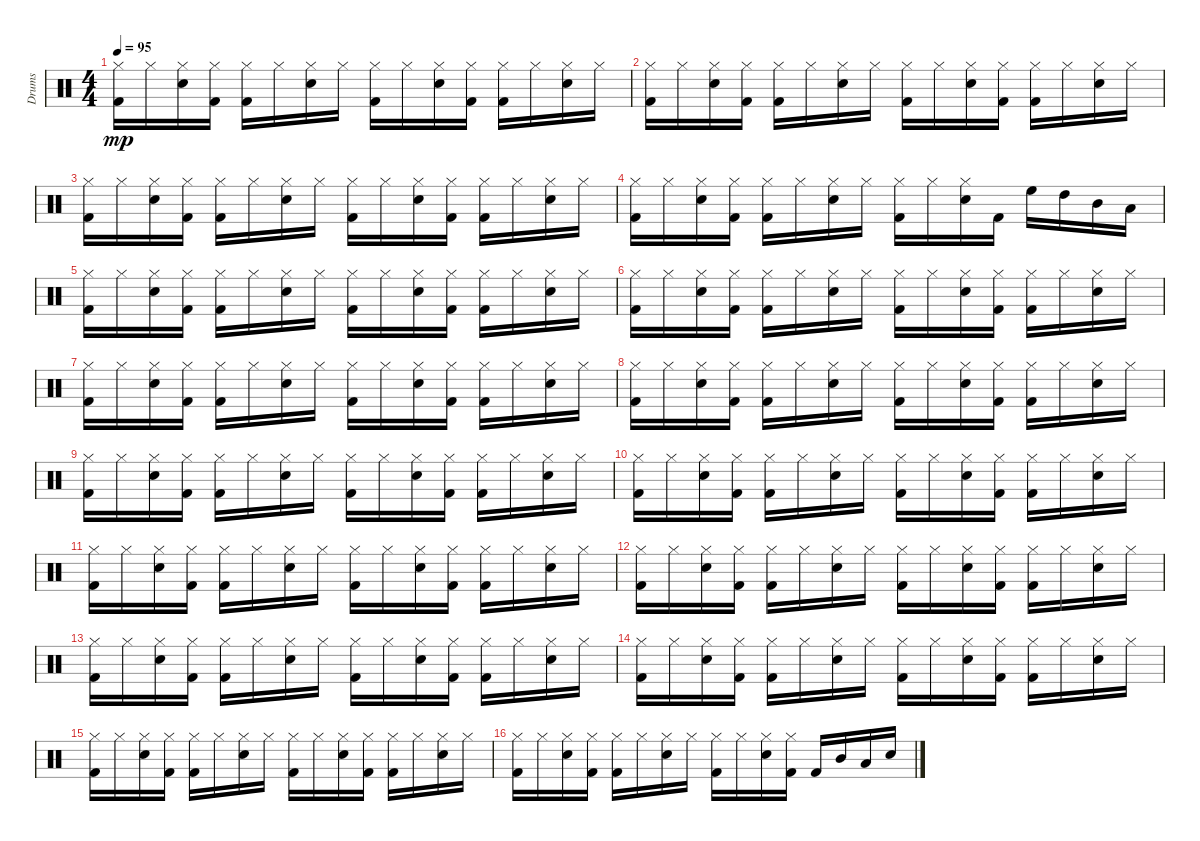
\track ("Drums" "Drums") {instrument percussion}
\staff {score}
\articulation defaults
\ts (4 4)
\tempo 95
\clef neutral
\ks c
("Kick (hit) 2" "Hi-Hat (closed)").16{dy mp} "Hi-Hat (closed)".16 ("Snare (hit) 2" "Hi-Hat (closed)").16 ("Kick (hit) 2" "Hi-Hat (closed)").16 ("Kick (hit) 2" "Hi-Hat (closed)").16 "Hi-Hat (closed)".16 ("Snare (hit) 2" "Hi-Hat (closed)").16 "Hi-Hat (closed)".16 ("Kick (hit) 2" "Hi-Hat (closed)").16 "Hi-Hat (closed)".16 ("Snare (hit) 2" "Hi-Hat (closed)").16 ("Kick (hit) 2" "Hi-Hat (closed)").16 ("Kick (hit) 2" "Hi-Hat (closed)").16 "Hi-Hat (closed)".16 ("Snare (hit) 2" "Hi-Hat (closed)").16 "Hi-Hat (closed)".16 |
("Kick (hit) 2" "Hi-Hat (closed)").16 "Hi-Hat (closed)".16 ("Snare (hit) 2" "Hi-Hat (closed)").16 ("Kick (hit) 2" "Hi-Hat (closed)").16 ("Kick (hit) 2" "Hi-Hat (closed)").16 "Hi-Hat (closed)".16 ("Snare (hit) 2" "Hi-Hat (closed)").16 "Hi-Hat (closed)".16 ("Kick (hit) 2" "Hi-Hat (closed)").16 "Hi-Hat (closed)".16 ("Snare (hit) 2" "Hi-Hat (closed)").16 ("Kick (hit) 2" "Hi-Hat (closed)").16 ("Kick (hit) 2" "Hi-Hat (closed)").16 "Hi-Hat (closed)".16 ("Snare (hit) 2" "Hi-Hat (closed)").16 "Hi-Hat (closed)".16 |
("Kick (hit) 2" "Hi-Hat (closed)").16 "Hi-Hat (closed)".16 ("Snare (hit) 2" "Hi-Hat (closed)").16 ("Kick (hit) 2" "Hi-Hat (closed)").16 ("Kick (hit) 2" "Hi-Hat (closed)").16 "Hi-Hat (closed)".16 ("Snare (hit) 2" "Hi-Hat (closed)").16 "Hi-Hat (closed)".16 ("Kick (hit) 2" "Hi-Hat (closed)").16 "Hi-Hat (closed)".16 ("Snare (hit) 2" "Hi-Hat (closed)").16 ("Kick (hit) 2" "Hi-Hat (closed)").16 ("Kick (hit) 2" "Hi-Hat (closed)").16 "Hi-Hat (closed)".16 ("Snare (hit) 2" "Hi-Hat (closed)").16 "Hi-Hat (closed)".16 |
("Kick (hit) 2" "Hi-Hat (closed)").16 "Hi-Hat (closed)".16 ("Snare (hit) 2" "Hi-Hat (closed)").16 ("Kick (hit) 2" "Hi-Hat (closed)").16 ("Kick (hit) 2" "Hi-Hat (closed)").16 "Hi-Hat (closed)".16 ("Snare (hit) 2" "Hi-Hat (closed)").16 "Hi-Hat (closed)".16 ("Kick (hit) 2" "Hi-Hat (closed)").16 "Hi-Hat (closed)".16 ("Snare (hit) 2" "Hi-Hat (closed)").16 "Kick (hit) 2".16 "High Floor Tom (hit)".16 "High Tom (hit)".16 "Mid Tom (hit)".16 "Low Tom (hit)".16 |
("Kick (hit) 2" "Hi-Hat (closed)").16 "Hi-Hat (closed)".16 ("Snare (hit) 2" "Hi-Hat (closed)").16 ("Kick (hit) 2" "Hi-Hat (closed)").16 ("Kick (hit) 2" "Hi-Hat (closed)").16 "Hi-Hat (closed)".16 ("Snare (hit) 2" "Hi-Hat (closed)").16 "Hi-Hat (closed)".16 ("Kick (hit) 2" "Hi-Hat (closed)").16 "Hi-Hat (closed)".16 ("Snare (hit) 2" "Hi-Hat (closed)").16 ("Kick (hit) 2" "Hi-Hat (closed)").16 ("Kick (hit) 2" "Hi-Hat (closed)").16 "Hi-Hat (closed)".16 ("Snare (hit) 2" "Hi-Hat (closed)").16 "Hi-Hat (closed)".16 |
("Kick (hit) 2" "Hi-Hat (closed)").16 "Hi-Hat (closed)".16 ("Snare (hit) 2" "Hi-Hat (closed)").16 ("Kick (hit) 2" "Hi-Hat (closed)").16 ("Kick (hit) 2" "Hi-Hat (closed)").16 "Hi-Hat (closed)".16 ("Snare (hit) 2" "Hi-Hat (closed)").16 "Hi-Hat (closed)".16 ("Kick (hit) 2" "Hi-Hat (closed)").16 "Hi-Hat (closed)".16 ("Snare (hit) 2" "Hi-Hat (closed)").16 ("Kick (hit) 2" "Hi-Hat (closed)").16 ("Kick (hit) 2" "Hi-Hat (closed)").16 "Hi-Hat (closed)".16 ("Snare (hit) 2" "Hi-Hat (closed)").16 "Hi-Hat (closed)".16 |
("Kick (hit) 2" "Hi-Hat (closed)").16 "Hi-Hat (closed)".16 ("Snare (hit) 2" "Hi-Hat (closed)").16 ("Kick (hit) 2" "Hi-Hat (closed)").16 ("Kick (hit) 2" "Hi-Hat (closed)").16 "Hi-Hat (closed)".16 ("Snare (hit) 2" "Hi-Hat (closed)").16 "Hi-Hat (closed)".16 ("Kick (hit) 2" "Hi-Hat (closed)").16 "Hi-Hat (closed)".16 ("Snare (hit) 2" "Hi-Hat (closed)").16 ("Kick (hit) 2" "Hi-Hat (closed)").16 ("Kick (hit) 2" "Hi-Hat (closed)").16 "Hi-Hat (closed)".16 ("Snare (hit) 2" "Hi-Hat (closed)").16 "Hi-Hat (closed)".16 |
("Kick (hit) 2" "Hi-Hat (closed)").16 "Hi-Hat (closed)".16 ("Snare (hit) 2" "Hi-Hat (closed)").16 ("Kick (hit) 2" "Hi-Hat (closed)").16 ("Kick (hit) 2" "Hi-Hat (closed)").16 "Hi-Hat (closed)".16 ("Snare (hit) 2" "Hi-Hat (closed)").16 "Hi-Hat (closed)".16 ("Kick (hit) 2" "Hi-Hat (closed)").16 "Hi-Hat (closed)".16 ("Snare (hit) 2" "Hi-Hat (closed)").16 ("Kick (hit) 2" "Hi-Hat (closed)").16 ("Kick (hit) 2" "Hi-Hat (closed)").16 "Hi-Hat (closed)".16 ("Snare (hit) 2" "Hi-Hat (closed)").16 "Hi-Hat (closed)".16 |
("Kick (hit) 2" "Hi-Hat (closed)").16 "Hi-Hat (closed)".16 ("Snare (hit) 2" "Hi-Hat (closed)").16 ("Kick (hit) 2" "Hi-Hat (closed)").16 ("Kick (hit) 2" "Hi-Hat (closed)").16 "Hi-Hat (closed)".16 ("Snare (hit) 2" "Hi-Hat (closed)").16 "Hi-Hat (closed)".16 ("Kick (hit) 2" "Hi-Hat (closed)").16 "Hi-Hat (closed)".16 ("Snare (hit) 2" "Hi-Hat (closed)").16 ("Kick (hit) 2" "Hi-Hat (closed)").16 ("Kick (hit) 2" "Hi-Hat (closed)").16 "Hi-Hat (closed)".16 ("Snare (hit) 2" "Hi-Hat (closed)").16 "Hi-Hat (closed)".16 |
("Kick (hit) 2" "Hi-Hat (closed)").16 "Hi-Hat (closed)".16 ("Snare (hit) 2" "Hi-Hat (closed)").16 ("Kick (hit) 2" "Hi-Hat (closed)").16 ("Kick (hit) 2" "Hi-Hat (closed)").16 "Hi-Hat (closed)".16 ("Snare (hit) 2" "Hi-Hat (closed)").16 "Hi-Hat (closed)".16 ("Kick (hit) 2" "Hi-Hat (closed)").16 "Hi-Hat (closed)".16 ("Snare (hit) 2" "Hi-Hat (closed)").16 ("Kick (hit) 2" "Hi-Hat (closed)").16 ("Kick (hit) 2" "Hi-Hat (closed)").16 "Hi-Hat (closed)".16 ("Snare (hit) 2" "Hi-Hat (closed)").16 "Hi-Hat (closed)".16 |
("Kick (hit) 2" "Hi-Hat (closed)").16 "Hi-Hat (closed)".16 ("Snare (hit) 2" "Hi-Hat (closed)").16 ("Kick (hit) 2" "Hi-Hat (closed)").16 ("Kick (hit) 2" "Hi-Hat (closed)").16 "Hi-Hat (closed)".16 ("Snare (hit) 2" "Hi-Hat (closed)").16 "Hi-Hat (closed)".16 ("Kick (hit) 2" "Hi-Hat (closed)").16 "Hi-Hat (closed)".16 ("Snare (hit) 2" "Hi-Hat (closed)").16 ("Kick (hit) 2" "Hi-Hat (closed)").16 ("Kick (hit) 2" "Hi-Hat (closed)").16 "Hi-Hat (closed)".16 ("Snare (hit) 2" "Hi-Hat (closed)").16 "Hi-Hat (closed)".16 |
("Kick (hit) 2" "Hi-Hat (closed)").16 "Hi-Hat (closed)".16 ("Snare (hit) 2" "Hi-Hat (closed)").16 ("Kick (hit) 2" "Hi-Hat (closed)").16 ("Kick (hit) 2" "Hi-Hat (closed)").16 "Hi-Hat (closed)".16 ("Snare (hit) 2" "Hi-Hat (closed)").16 "Hi-Hat (closed)".16 ("Kick (hit) 2" "Hi-Hat (closed)").16 "Hi-Hat (closed)".16 ("Snare (hit) 2" "Hi-Hat (closed)").16 ("Kick (hit) 2" "Hi-Hat (closed)").16 ("Kick (hit) 2" "Hi-Hat (closed)").16 "Hi-Hat (closed)".16 ("Snare (hit) 2" "Hi-Hat (closed)").16 "Hi-Hat (closed)".16 |
("Kick (hit) 2" "Hi-Hat (closed)").16 "Hi-Hat (closed)".16 ("Snare (hit) 2" "Hi-Hat (closed)").16 ("Kick (hit) 2" "Hi-Hat (closed)").16 ("Kick (hit) 2" "Hi-Hat (closed)").16 "Hi-Hat (closed)".16 ("Snare (hit) 2" "Hi-Hat (closed)").16 "Hi-Hat (closed)".16 ("Kick (hit) 2" "Hi-Hat (closed)").16 "Hi-Hat (closed)".16 ("Snare (hit) 2" "Hi-Hat (closed)").16 ("Kick (hit) 2" "Hi-Hat (closed)").16 ("Kick (hit) 2" "Hi-Hat (closed)").16 "Hi-Hat (closed)".16 ("Snare (hit) 2" "Hi-Hat (closed)").16 "Hi-Hat (closed)".16 |
("Kick (hit) 2" "Hi-Hat (closed)").16 "Hi-Hat (closed)".16 ("Snare (hit) 2" "Hi-Hat (closed)").16 ("Kick (hit) 2" "Hi-Hat (closed)").16 ("Kick (hit) 2" "Hi-Hat (closed)").16 "Hi-Hat (closed)".16 ("Snare (hit) 2" "Hi-Hat (closed)").16 "Hi-Hat (closed)".16 ("Kick (hit) 2" "Hi-Hat (closed)").16 "Hi-Hat (closed)".16 ("Snare (hit) 2" "Hi-Hat (closed)").16 ("Kick (hit) 2" "Hi-Hat (closed)").16 ("Kick (hit) 2" "Hi-Hat (closed)").16 "Hi-Hat (closed)".16 ("Snare (hit) 2" "Hi-Hat (closed)").16 "Hi-Hat (closed)".16 |
("Kick (hit) 2" "Hi-Hat (closed)").16 "Hi-Hat (closed)".16 ("Snare (hit) 2" "Hi-Hat (closed)").16 ("Kick (hit) 2" "Hi-Hat (closed)").16 ("Kick (hit) 2" "Hi-Hat (closed)").16 "Hi-Hat (closed)".16 ("Snare (hit) 2" "Hi-Hat (closed)").16 "Hi-Hat (closed)".16 ("Kick (hit) 2" "Hi-Hat (closed)").16 "Hi-Hat (closed)".16 ("Snare (hit) 2" "Hi-Hat (closed)").16 ("Kick (hit) 2" "Hi-Hat (closed)").16 ("Kick (hit) 2" "Hi-Hat (closed)").16 "Hi-Hat (closed)".16 ("Snare (hit) 2" "Hi-Hat (closed)").16 "Hi-Hat (closed)".16 |
("Kick (hit) 2" "Hi-Hat (closed)").16 "Hi-Hat (closed)".16 ("Snare (hit) 2" "Hi-Hat (closed)").16 ("Kick (hit) 2" "Hi-Hat (closed)").16 ("Kick (hit) 2" "Hi-Hat (closed)").16 "Hi-Hat (closed)".16 ("Snare (hit) 2" "Hi-Hat (closed)").16 "Hi-Hat (closed)".16 ("Kick (hit) 2" "Hi-Hat (closed)").16 "Hi-Hat (closed)".16 ("Snare (hit) 2" "Hi-Hat (closed)").16 ("Kick (hit) 2" "Hi-Hat (closed)").16 "Kick (hit) 2".16 "Mid Tom (hit)".16 "Low Tom (hit)".16 "Snare (hit) 2".16
